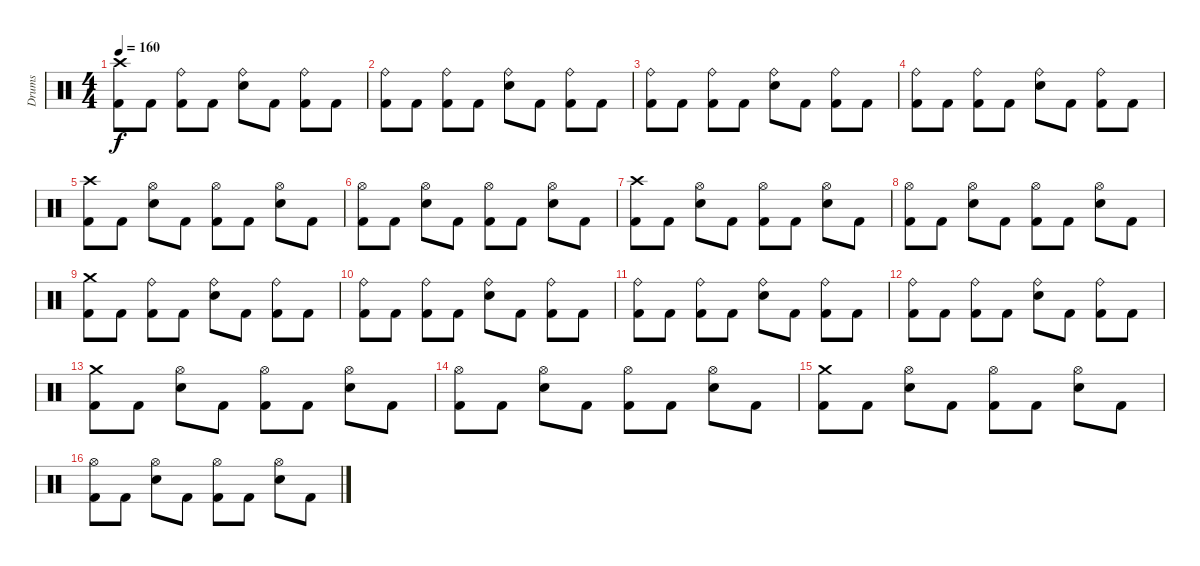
\track ("Drums" "Drums") {instrument percussion}
\staff {score}
\articulation defaults
\ts (4 4)
\tempo 160
\clef neutral
\ks c
("Crash high (hit)" "Kick (hit) 2").8{dy f} "Kick (hit) 2".8 ("Ride (bell)" "Kick (hit) 2").8 "Kick (hit) 2".8 ("Ride (bell)" "Electric Snare (hit)").8 "Kick (hit) 2".8 ("Ride (bell)" "Kick (hit) 2").8 "Kick (hit) 2".8 |
("Ride (bell)" "Kick (hit) 2").8 "Kick (hit) 2".8 ("Ride (bell)" "Kick (hit) 2").8 "Kick (hit) 2".8 ("Ride (bell)" "Electric Snare (hit)").8 "Kick (hit) 2".8 ("Ride (bell)" "Kick (hit) 2").8 "Kick (hit) 2".8 |
("Ride (bell)" "Kick (hit) 2").8 "Kick (hit) 2".8 ("Ride (bell)" "Kick (hit) 2").8 "Kick (hit) 2".8 ("Ride (bell)" "Electric Snare (hit)").8 "Kick (hit) 2".8 ("Ride (bell)" "Kick (hit) 2").8 "Kick (hit) 2".8 |
("Ride (bell)" "Kick (hit) 2").8 "Kick (hit) 2".8 ("Ride (bell)" "Kick (hit) 2").8 "Kick (hit) 2".8 ("Ride (bell)" "Electric Snare (hit)").8 "Kick (hit) 2".8 ("Ride (bell)" "Kick (hit) 2").8 "Kick (hit) 2".8 |
("Crash high (hit)" "Kick (hit) 2").8 "Kick (hit) 2".8 ("Hi-Hat (open)" "Electric Snare (hit)").8 "Kick (hit) 2".8 ("Hi-Hat (open)" "Kick (hit) 2").8 "Kick (hit) 2".8 ("Hi-Hat (open)" "Electric Snare (hit)").8 "Kick (hit) 2".8 |
("Hi-Hat (open)" "Kick (hit) 2").8 "Kick (hit) 2".8 ("Hi-Hat (open)" "Electric Snare (hit)").8 "Kick (hit) 2".8 ("Hi-Hat (open)" "Kick (hit) 2").8 "Kick (hit) 2".8 ("Hi-Hat (open)" "Electric Snare (hit)").8 "Kick (hit) 2".8 |
("Crash high (hit)" "Kick (hit) 2").8 "Kick (hit) 2".8 ("Hi-Hat (open)" "Electric Snare (hit)").8 "Kick (hit) 2".8 ("Hi-Hat (open)" "Kick (hit) 2").8 "Kick (hit) 2".8 ("Hi-Hat (open)" "Electric Snare (hit)").8 "Kick (hit) 2".8 |
("Hi-Hat (open)" "Kick (hit) 2").8 "Kick (hit) 2".8 ("Hi-Hat (open)" "Electric Snare (hit)").8 "Kick (hit) 2".8 ("Hi-Hat (open)" "Kick (hit) 2").8 "Kick (hit) 2".8 ("Hi-Hat (open)" "Electric Snare (hit)").8 "Kick (hit) 2".8 |
("Crash medium (hit)" "Kick (hit) 2").8 "Kick (hit) 2".8 ("Ride (bell)" "Kick (hit) 2").8 "Kick (hit) 2".8 ("Ride (bell)" "Electric Snare (hit)").8 "Kick (hit) 2".8 ("Ride (bell)" "Kick (hit) 2").8 "Kick (hit) 2".8 |
("Ride (bell)" "Kick (hit) 2").8 "Kick (hit) 2".8 ("Ride (bell)" "Kick (hit) 2").8 "Kick (hit) 2".8 ("Ride (bell)" "Electric Snare (hit)").8 "Kick (hit) 2".8 ("Ride (bell)" "Kick (hit) 2").8 "Kick (hit) 2".8 |
("Ride (bell)" "Kick (hit) 2").8 "Kick (hit) 2".8 ("Ride (bell)" "Kick (hit) 2").8 "Kick (hit) 2".8 ("Ride (bell)" "Electric Snare (hit)").8 "Kick (hit) 2".8 ("Ride (bell)" "Kick (hit) 2").8 "Kick (hit) 2".8 |
("Ride (bell)" "Kick (hit) 2").8 "Kick (hit) 2".8 ("Ride (bell)" "Kick (hit) 2").8 "Kick (hit) 2".8 ("Ride (bell)" "Electric Snare (hit)").8 "Kick (hit) 2".8 ("Ride (bell)" "Kick (hit) 2").8 "Kick (hit) 2".8 |
("Crash medium (hit)" "Kick (hit) 2").8 "Kick (hit) 2".8 ("Hi-Hat (open)" "Electric Snare (hit)").8 "Kick (hit) 2".8 ("Hi-Hat (open)" "Kick (hit) 2").8 "Kick (hit) 2".8 ("Hi-Hat (open)" "Electric Snare (hit)").8 "Kick (hit) 2".8 |
("Hi-Hat (open)" "Kick (hit) 2").8 "Kick (hit) 2".8 ("Hi-Hat (open)" "Electric Snare (hit)").8 "Kick (hit) 2".8 ("Hi-Hat (open)" "Kick (hit) 2").8 "Kick (hit) 2".8 ("Hi-Hat (open)" "Electric Snare (hit)").8 "Kick (hit) 2".8 |
("Crash medium (hit)" "Kick (hit) 2").8 "Kick (hit) 2".8 ("Hi-Hat (open)" "Electric Snare (hit)").8 "Kick (hit) 2".8 ("Hi-Hat (open)" "Kick (hit) 2").8 "Kick (hit) 2".8 ("Hi-Hat (open)" "Electric Snare (hit)").8 "Kick (hit) 2".8 |
("Hi-Hat (open)" "Kick (hit) 2").8 "Kick (hit) 2".8 ("Hi-Hat (open)" "Electric Snare (hit)").8 "Kick (hit) 2".8 ("Hi-Hat (open)" "Kick (hit) 2").8 "Kick (hit) 2".8 ("Hi-Hat (open)" "Electric Snare (hit)").8 "Kick (hit) 2".8
